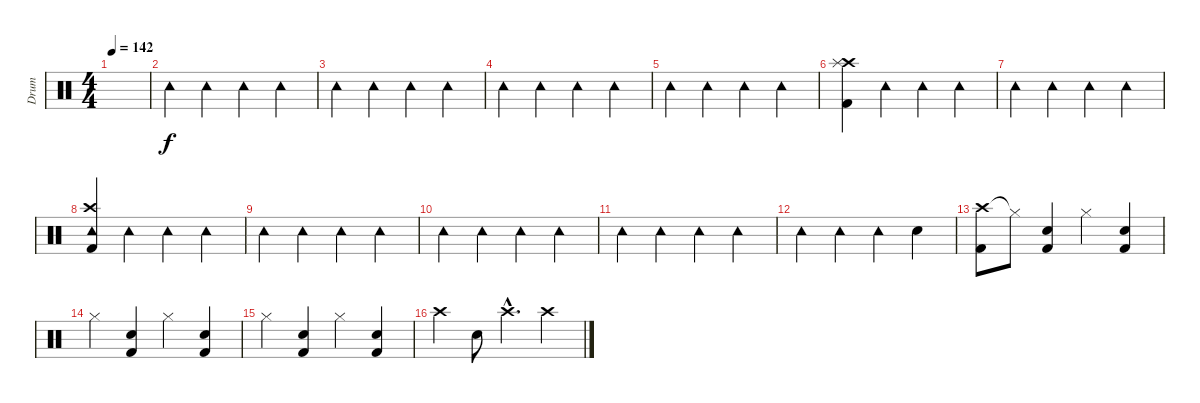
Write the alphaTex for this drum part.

\track ("Drum" "Drum") {instrument percussion}
\staff {score}
\articulation defaults
\ts (4 4)
\tempo 142
\clef neutral
\ks c
|
"Tambourine (hit)".4 "Tambourine (hit)".4 "Tambourine (hit)".4 "Tambourine (hit)".4 |
"Tambourine (hit)".4 "Tambourine (hit)".4 "Tambourine (hit)".4 "Tambourine (hit)".4 |
"Tambourine (hit)".4 "Tambourine (hit)".4 "Tambourine (hit)".4 "Tambourine (hit)".4 |
"Tambourine (hit)".4 "Tambourine (hit)".4 "Tambourine (hit)".4 "Tambourine (hit)".4 |
("Crash high (hit)" "Splash (hit)" "Kick (hit) 2").4 "Tambourine (hit)".4 "Tambourine (hit)".4 "Tambourine (hit)".4 |
"Tambourine (hit)".4 "Tambourine (hit)".4 "Tambourine (hit)".4 "Tambourine (hit)".4 |
("Tambourine (hit)" "Kick (hit) 2" "Crash high (hit)").4 "Tambourine (hit)".4 "Tambourine (hit)".4 "Tambourine (hit)".4 |
"Tambourine (hit)".4 "Tambourine (hit)".4 "Tambourine (hit)".4 "Tambourine (hit)".4 |
"Tambourine (hit)".4 "Tambourine (hit)".4 "Tambourine (hit)".4 "Tambourine (hit)".4 |
"Tambourine (hit)".4 "Tambourine (hit)".4 "Tambourine (hit)".4 "Tambourine (hit)".4 |
"Tambourine (hit)".4 "Tambourine (hit)".4 "Tambourine (hit)".4 "Electric Snare (hit)".4 |
("Crash high (hit)" "Kick (hit) 2").8 "Hi-Hat (closed)"{t}.8 ("Electric Snare (hit)" "Kick (hit) 2").4 "Hi-Hat (closed)".4 ("Electric Snare (hit)" "Kick (hit) 2").4 |
"Hi-Hat (closed)".4 ("Electric Snare (hit)" "Kick (hit) 2").4 "Hi-Hat (closed)".4 ("Electric Snare (hit)" "Kick (hit) 2").4 |
"Hi-Hat (closed)".4 ("Electric Snare (hit)" "Kick (hit) 2").4 "Hi-Hat (closed)".4 ("Electric Snare (hit)" "Kick (hit) 2").4 |
"Crash high (hit)".4 "Electric Snare (hit)".8 "Crash high (hit)"{hac}.4{d} "Crash high (hit)".4
